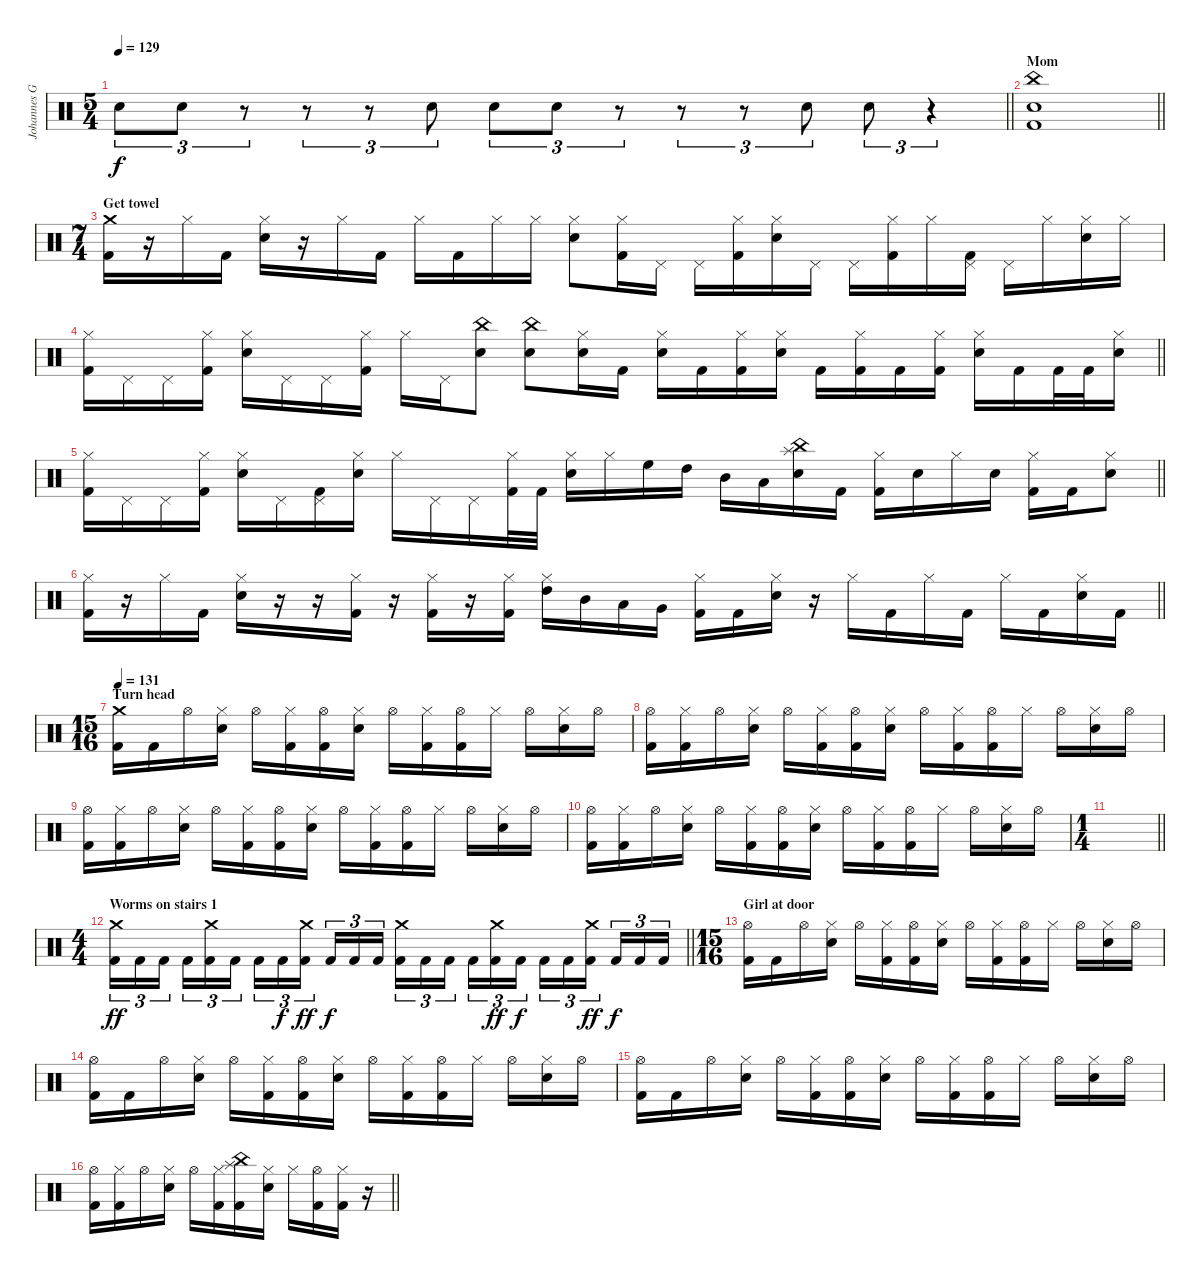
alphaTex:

\track ("Johannes Grossmann" "Johannes G") {instrument percussion}
\staff {score}
\articulation defaults
\ts (5 4)
\tempo 129
\clef neutral
\barLineRight lightlight
\ks c "Snare (hit) 2".8{tu (3 2) dy f} "Snare (hit) 2".8{tu (3 2)}
r.8{tu (3 2)} r.8{tu (3 2)} r.8{tu (3 2)} "Snare (hit) 2".8{tu (3 2)} "Snare (hit) 2".8{tu (3 2)} "Snare (hit) 2".8{tu (3 2)} r.8{tu (3 2)} r.8{tu (3 2)} r.8{tu (3 2)} "Snare (hit) 2".8{tu (3 2)} "Snare (hit) 2".8{tu (3 2)} r.4{tu (3 2)} |
\section ("" "Mom")
\barLineRight lightlight
("China (hit)" "Electric Snare (hit)" "Kick (hit) 2").1 |
\ts (7 4)
\section ("" "Get towel")
("Crash medium (hit)" "Kick (hit) 2").16 r.16 "Hi-Hat (closed)".16 "Kick (hit) 2".16 ("Hi-Hat (closed)" "Snare (hit) 2").16 r.16 "Hi-Hat (closed)".16 "Kick (hit) 2".16 "Hi-Hat (closed)".16 "Kick (hit) 2".16 "Hi-Hat (closed)".16 "Hi-Hat (closed)".16 ("Hi-Hat (closed)" "Snare (hit) 2").8 ("Hi-Hat (closed)" "Kick (hit) 2").16 "Pedal Hi-Hat (hit)".16 "Pedal Hi-Hat (hit)".16 ("Hi-Hat (closed)" "Kick (hit) 2").16 ("Hi-Hat (closed)" "Snare (hit) 2").16 "Pedal Hi-Hat (hit)".16 "Pedal Hi-Hat (hit)".16 ("Hi-Hat (closed)" "Kick (hit) 2").16 "Hi-Hat (closed)".16 ("Pedal Hi-Hat (hit)" "Kick (hit) 2").16 "Pedal Hi-Hat (hit)".16 "Hi-Hat (closed)".16 ("Hi-Hat (closed)" "Snare (hit) 2").16 "Hi-Hat (closed)".16 |
\barLineRight lightlight
("Hi-Hat (closed)" "Kick (hit) 2").16 "Pedal Hi-Hat (hit)".16 "Pedal Hi-Hat (hit)".16 ("Hi-Hat (closed)" "Kick (hit) 2").16 ("Hi-Hat (closed)" "Snare (hit) 2").16 "Pedal Hi-Hat (hit)".16 "Pedal Hi-Hat (hit)".16 ("Hi-Hat (closed)" "Kick (hit) 2").16 "Hi-Hat (closed)".16 "Pedal Hi-Hat (hit)".16 ("China (hit)" "Snare (hit) 2").8 ("China (hit)" "Snare (hit) 2").8 ("Hi-Hat (closed)" "Snare (hit) 2").16 "Kick (hit) 2".16 ("Hi-Hat (closed)" "Snare (hit) 2").16 "Kick (hit) 2".16 ("Hi-Hat (closed)" "Kick (hit) 2").16 ("Hi-Hat (closed)" "Snare (hit) 2").16 "Kick (hit) 2".16 ("Hi-Hat (closed)" "Kick (hit) 2").16 "Kick (hit) 2".16 ("Hi-Hat (closed)" "Kick (hit) 2").16 ("Hi-Hat (closed)" "Snare (hit) 2").16 "Kick (hit) 2".16 "Kick (hit) 2".32 "Kick (hit) 2".32 ("Hi-Hat (closed)" "Snare (hit) 2").16 |
\barLineRight lightlight
("Hi-Hat (closed)" "Kick (hit) 2").16 "Pedal Hi-Hat (hit)".16 "Pedal Hi-Hat (hit)".16 ("Hi-Hat (closed)" "Kick (hit) 2").16 ("Hi-Hat (closed)" "Snare (hit) 2").16 "Pedal Hi-Hat (hit)".16 ("Pedal Hi-Hat (hit)" "Kick (hit) 2").16 ("Hi-Hat (closed)" "Snare (hit) 2").16 "Hi-Hat (closed)".16 "Pedal Hi-Hat (hit)".16 "Pedal Hi-Hat (hit)".16 ("Hi-Hat (closed)" "Kick (hit) 2").32 "Kick (hit) 2".32 ("Hi-Hat (closed)" "Snare (hit) 2").16 "Hi-Hat (closed)".16 "High Floor Tom (hit)".16 "High Tom (hit)".16 "Mid Tom (hit)".16 "Low Tom (hit)".16 ("China (hit)" "Splash (hit)" "Snare (hit) 2").16 "Kick (hit) 2".16 ("Hi-Hat (closed)" "Kick (hit) 2").16 "Snare (hit) 2".16 "Hi-Hat (closed)".16 "Snare (hit) 2".16 ("Hi-Hat (closed)" "Kick (hit) 2").16 "Kick (hit) 2".16 ("Hi-Hat (closed)" "Snare (hit) 2").8 |
\barLineRight lightlight
("Hi-Hat (closed)" "Kick (hit) 2").16 r.16 "Hi-Hat (closed)".16 "Kick (hit) 2".16 ("Hi-Hat (closed)" "Snare (hit) 2").16 r.16 r.16 ("Hi-Hat (closed)" "Kick (hit) 2").16 r.16 ("Hi-Hat (closed)" "Kick (hit) 2").16 r.16 ("Hi-Hat (closed)" "Kick (hit) 2").16 ("Hi-Hat (closed)" "High Tom (hit)").16 "Mid Tom (hit)".16 "Low Tom (hit)".16 "Very Low Tom (hit)".16 ("Hi-Hat (closed)" "Kick (hit) 2").16 "Kick (hit) 2".16 ("Hi-Hat (closed)" "Snare (hit) 2").16 r.16 "Hi-Hat (closed)".16 "Kick (hit) 2".16 "Hi-Hat (closed)".16 "Kick (hit) 2".16 "Hi-Hat (closed)".16 "Kick (hit) 2".16 ("Hi-Hat (closed)" "Snare (hit) 2").16 "Kick (hit) 2".16 |
\ts (15 16)
\section ("" "Turn head")
\tempo 131
("Crash medium (hit)" "Kick (hit) 2").16 "Kick (hit) 2".16 "Hi-Hat (open)".16 ("Hi-Hat (closed)" "Snare (hit) 2").16 "Hi-Hat (open)".16 ("Hi-Hat (closed)" "Kick (hit) 2").16 ("Hi-Hat (open)" "Kick (hit) 2").16 ("Hi-Hat (closed)" "Snare (hit) 2").16 "Hi-Hat (open)".16 ("Hi-Hat (closed)" "Kick (hit) 2").16 ("Hi-Hat (open)" "Kick (hit) 2").16 "Hi-Hat (closed)".16 "Hi-Hat (open)".16 ("Hi-Hat (closed)" "Snare (hit) 2").16 "Hi-Hat (open)".16 |
("Hi-Hat (open)" "Kick (hit) 2").16 ("Hi-Hat (closed)" "Kick (hit) 2").16 "Hi-Hat (open)".16 ("Hi-Hat (closed)" "Snare (hit) 2").16 "Hi-Hat (open)".16 ("Hi-Hat (closed)" "Kick (hit) 2").16 ("Hi-Hat (open)" "Kick (hit) 2").16 ("Hi-Hat (closed)" "Snare (hit) 2").16 "Hi-Hat (open)".16 ("Hi-Hat (closed)" "Kick (hit) 2").16 ("Hi-Hat (open)" "Kick (hit) 2").16 "Hi-Hat (closed)".16 "Hi-Hat (open)".16 ("Hi-Hat (closed)" "Snare (hit) 2").16 "Hi-Hat (open)".16 |
("Hi-Hat (open)" "Kick (hit) 2").16 ("Hi-Hat (closed)" "Kick (hit) 2").16 "Hi-Hat (open)".16 ("Hi-Hat (closed)" "Snare (hit) 2").16 "Hi-Hat (open)".16 ("Hi-Hat (closed)" "Kick (hit) 2").16 ("Hi-Hat (open)" "Kick (hit) 2").16 ("Hi-Hat (closed)" "Snare (hit) 2").16 "Hi-Hat (open)".16 ("Hi-Hat (closed)" "Kick (hit) 2").16 ("Hi-Hat (open)" "Kick (hit) 2").16 "Hi-Hat (closed)".16 "Hi-Hat (open)".16 ("Hi-Hat (closed)" "Snare (hit) 2").16 "Hi-Hat (open)".16 |
("Hi-Hat (open)" "Kick (hit) 2").16 ("Hi-Hat (closed)" "Kick (hit) 2").16 "Hi-Hat (open)".16 ("Hi-Hat (closed)" "Snare (hit) 2").16 "Hi-Hat (open)".16 ("Hi-Hat (closed)" "Kick (hit) 2").16 ("Hi-Hat (open)" "Kick (hit) 2").16 ("Hi-Hat (closed)" "Snare (hit) 2").16 "Hi-Hat (open)".16 ("Hi-Hat (closed)" "Kick (hit) 2").16 ("Hi-Hat (open)" "Kick (hit) 2").16 "Hi-Hat (closed)".16 "Hi-Hat (open)".16 ("Hi-Hat (closed)" "Snare (hit) 2").16 "Hi-Hat (open)".16 |
\ts (1 4)
\barLineRight lightlight
|
\ts (4 4)
\section ("" "Worms on stairs 1")
\barLineRight lightlight
("Crash medium (hit)" "Kick (hit) 2").16{tu (3 2) dy ff} "Kick (hit) 2".16{tu (3 2)} "Kick (hit) 2".16{tu (3 2) beam splitsecondary} "Kick (hit) 2".16{tu (3 2)} ("Crash medium (hit)" "Kick (hit) 2").16{tu (3 2)} "Kick (hit) 2".16{tu (3 2)} "Kick (hit) 2".16{tu (3 2)} "Kick (hit) 2".16{tu (3 2) dy f} ("Crash medium (hit)" "Kick (hit) 2").16{tu (3 2) dy ff beam splitsecondary} "Kick (hit) 2".16{tu (3 2) dy f} "Kick (hit) 2".16{tu (3 2)} "Kick (hit) 2".16{tu (3 2)} ("Crash medium (hit)" "Kick (hit) 2").16{tu (3 2)} "Kick (hit) 2".16{tu (3 2)} "Kick (hit) 2".16{tu (3 2) beam splitsecondary} "Kick (hit) 2".16{tu (3 2)} ("Crash medium (hit)" "Kick (hit) 2").16{tu (3 2) dy ff} "Kick (hit) 2".16{tu (3 2) dy f} "Kick (hit) 2".16{tu (3 2)} "Kick (hit) 2".16{tu (3 2)} ("Crash medium (hit)" "Kick (hit) 2").16{tu (3 2) dy ff beam splitsecondary} "Kick (hit) 2".16{tu (3 2) dy f} "Kick (hit) 2".16{tu (3 2)} "Kick (hit) 2".16{tu (3 2)} |
\ts (15 16)
\section ("" "Girl at door")
("Hi-Hat (open)" "Kick (hit) 2").16 "Kick (hit) 2".16 "Hi-Hat (open)".16 ("Hi-Hat (closed)" "Snare (hit) 2").16 "Hi-Hat (open)".16 ("Hi-Hat (closed)" "Kick (hit) 2").16 ("Hi-Hat (open)" "Kick (hit) 2").16 ("Hi-Hat (closed)" "Snare (hit) 2").16 "Hi-Hat (open)".16 ("Hi-Hat (closed)" "Kick (hit) 2").16 ("Hi-Hat (open)" "Kick (hit) 2").16 "Hi-Hat (closed)".16 "Hi-Hat (open)".16 ("Hi-Hat (closed)" "Snare (hit) 2").16 "Hi-Hat (open)".16 |
("Hi-Hat (open)" "Kick (hit) 2").16 "Kick (hit) 2".16 "Hi-Hat (open)".16 ("Hi-Hat (closed)" "Snare (hit) 2").16 "Hi-Hat (open)".16 ("Hi-Hat (closed)" "Kick (hit) 2").16 ("Hi-Hat (open)" "Kick (hit) 2").16 ("Hi-Hat (closed)" "Snare (hit) 2").16 "Hi-Hat (open)".16 ("Hi-Hat (closed)" "Kick (hit) 2").16 ("Hi-Hat (open)" "Kick (hit) 2").16 "Hi-Hat (closed)".16 "Hi-Hat (open)".16 ("Hi-Hat (closed)" "Snare (hit) 2").16 "Hi-Hat (open)".16 |
("Hi-Hat (open)" "Kick (hit) 2").16 "Kick (hit) 2".16 "Hi-Hat (open)".16 ("Hi-Hat (closed)" "Snare (hit) 2").16 "Hi-Hat (open)".16 ("Hi-Hat (closed)" "Kick (hit) 2").16 ("Hi-Hat (open)" "Kick (hit) 2").16 ("Hi-Hat (closed)" "Snare (hit) 2").16 "Hi-Hat (open)".16 ("Hi-Hat (closed)" "Kick (hit) 2").16 ("Hi-Hat (open)" "Kick (hit) 2").16 "Hi-Hat (closed)".16 "Hi-Hat (open)".16 ("Hi-Hat (closed)" "Snare (hit) 2").16 "Hi-Hat (open)".16 |
\barLineRight lightlight
("Hi-Hat (open)" "Kick (hit) 2").16 ("Hi-Hat (closed)" "Kick (hit) 2").16 "Hi-Hat (open)".16 ("Hi-Hat (closed)" "Snare (hit) 2").16 "Hi-Hat (open)".16 ("Hi-Hat (closed)" "Kick (hit) 2").16 ("China (hit)" "Splash (hit)" "Kick (hit) 2").16 ("Hi-Hat (closed)" "Snare (hit) 2").16 "Hi-Hat (closed)".16 ("Hi-Hat (open)" "Kick (hit) 2").16 ("Hi-Hat (closed)" "Kick (hit) 2").16 r.16
